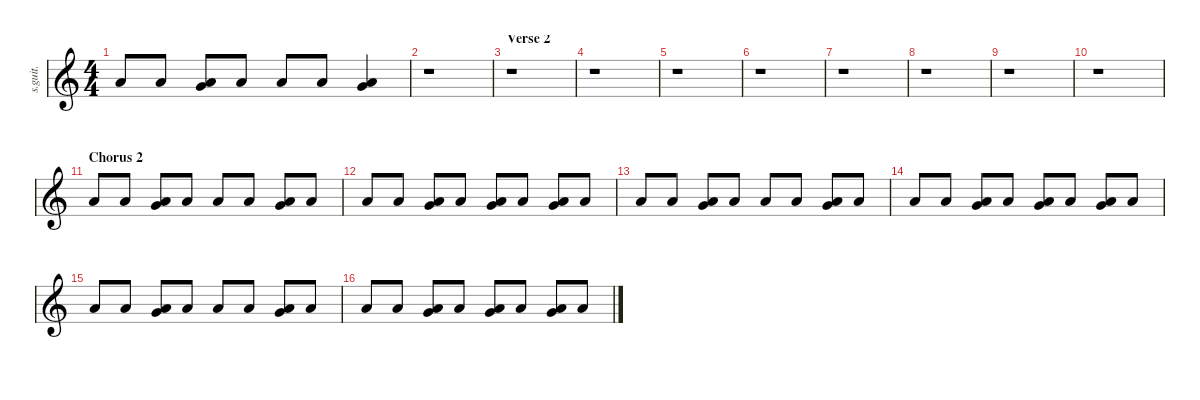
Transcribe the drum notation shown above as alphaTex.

\defaultSystemsLayout 4
\hideDynamics
\bracketExtendMode nobrackets
\track ("Clown" "s.guit.") {instrument percussion}
\staff {score}
\articulation defaults
\ts (4 4)
\tempo (210 hide)
\clef g2
\ks c "Low Floor Tom (hit)".8{lyrics (0 "") lyrics (1 "") lyrics (2 "") lyrics (3 "") lyrics (4 "") dy f} "Low Floor Tom (hit)".8{lyrics (0 "") lyrics (1 "") lyrics (2 "") lyrics (3 "") lyrics (4 "")}
("Very Low Tom (hit)" "Low Floor Tom (hit)").8{lyrics (0 "") lyrics (1 "") lyrics (2 "") lyrics (3 "") lyrics (4 "")} "Low Floor Tom (hit)".8{lyrics (0 "") lyrics (1 "") lyrics (2 "") lyrics (3 "") lyrics (4 "")} "Low Floor Tom (hit)".8{lyrics (0 "") lyrics (1 "") lyrics (2 "") lyrics (3 "") lyrics (4 "")} "Low Floor Tom (hit)".8{lyrics (0 "") lyrics (1 "") lyrics (2 "") lyrics (3 "") lyrics (4 "")} ("Very Low Tom (hit)" "Low Floor Tom (hit)").4{lyrics (0 "") lyrics (1 "") lyrics (2 "") lyrics (3 "") lyrics (4 "")} |
r.1 |
\section ("" "Verse 2")
r.1 |
r.1 |
r.1 |
r.1 |
r.1 |
r.1 |
r.1 |
r.1 |
\section ("" "Chorus 2")
"Low Floor Tom (hit)".8{lyrics (0 "") lyrics (1 "") lyrics (2 "") lyrics (3 "") lyrics (4 "")} "Low Floor Tom (hit)".8{lyrics (0 "") lyrics (1 "") lyrics (2 "") lyrics (3 "") lyrics (4 "")} ("Very Low Tom (hit)" "Low Floor Tom (hit)").8{lyrics (0 "") lyrics (1 "") lyrics (2 "") lyrics (3 "") lyrics (4 "")} "Low Floor Tom (hit)".8{lyrics (0 "") lyrics (1 "") lyrics (2 "") lyrics (3 "") lyrics (4 "")} "Low Floor Tom (hit)".8{lyrics (0 "") lyrics (1 "") lyrics (2 "") lyrics (3 "") lyrics (4 "")} "Low Floor Tom (hit)".8{lyrics (0 "") lyrics (1 "") lyrics (2 "") lyrics (3 "") lyrics (4 "")} ("Very Low Tom (hit)" "Low Floor Tom (hit)").8{lyrics (0 "") lyrics (1 "") lyrics (2 "") lyrics (3 "") lyrics (4 "")} "Low Floor Tom (hit)".8{lyrics (0 "") lyrics (1 "") lyrics (2 "") lyrics (3 "") lyrics (4 "")} |
"Low Floor Tom (hit)".8{lyrics (0 "") lyrics (1 "") lyrics (2 "") lyrics (3 "") lyrics (4 "")} "Low Floor Tom (hit)".8{lyrics (0 "") lyrics (1 "") lyrics (2 "") lyrics (3 "") lyrics (4 "")} ("Very Low Tom (hit)" "Low Floor Tom (hit)").8{lyrics (0 "") lyrics (1 "") lyrics (2 "") lyrics (3 "") lyrics (4 "")} "Low Floor Tom (hit)".8{lyrics (0 "") lyrics (1 "") lyrics (2 "") lyrics (3 "") lyrics (4 "")} ("Very Low Tom (hit)" "Low Floor Tom (hit)").8{lyrics (0 "") lyrics (1 "") lyrics (2 "") lyrics (3 "") lyrics (4 "")} "Low Floor Tom (hit)".8{lyrics (0 "") lyrics (1 "") lyrics (2 "") lyrics (3 "") lyrics (4 "")} ("Very Low Tom (hit)" "Low Floor Tom (hit)").8{lyrics (0 "") lyrics (1 "") lyrics (2 "") lyrics (3 "") lyrics (4 "")} "Low Floor Tom (hit)".8{lyrics (0 "") lyrics (1 "") lyrics (2 "") lyrics (3 "") lyrics (4 "")} |
"Low Floor Tom (hit)".8{lyrics (0 "") lyrics (1 "") lyrics (2 "") lyrics (3 "") lyrics (4 "")} "Low Floor Tom (hit)".8{lyrics (0 "") lyrics (1 "") lyrics (2 "") lyrics (3 "") lyrics (4 "")} ("Very Low Tom (hit)" "Low Floor Tom (hit)").8{lyrics (0 "") lyrics (1 "") lyrics (2 "") lyrics (3 "") lyrics (4 "")} "Low Floor Tom (hit)".8{lyrics (0 "") lyrics (1 "") lyrics (2 "") lyrics (3 "") lyrics (4 "")} "Low Floor Tom (hit)".8{lyrics (0 "") lyrics (1 "") lyrics (2 "") lyrics (3 "") lyrics (4 "")} "Low Floor Tom (hit)".8{lyrics (0 "") lyrics (1 "") lyrics (2 "") lyrics (3 "") lyrics (4 "")} ("Very Low Tom (hit)" "Low Floor Tom (hit)").8{lyrics (0 "") lyrics (1 "") lyrics (2 "") lyrics (3 "") lyrics (4 "")} "Low Floor Tom (hit)".8{lyrics (0 "") lyrics (1 "") lyrics (2 "") lyrics (3 "") lyrics (4 "")} |
"Low Floor Tom (hit)".8{lyrics (0 "") lyrics (1 "") lyrics (2 "") lyrics (3 "") lyrics (4 "")} "Low Floor Tom (hit)".8{lyrics (0 "") lyrics (1 "") lyrics (2 "") lyrics (3 "") lyrics (4 "")} ("Very Low Tom (hit)" "Low Floor Tom (hit)").8{lyrics (0 "") lyrics (1 "") lyrics (2 "") lyrics (3 "") lyrics (4 "")} "Low Floor Tom (hit)".8{lyrics (0 "") lyrics (1 "") lyrics (2 "") lyrics (3 "") lyrics (4 "")} ("Very Low Tom (hit)" "Low Floor Tom (hit)").8{lyrics (0 "") lyrics (1 "") lyrics (2 "") lyrics (3 "") lyrics (4 "")} "Low Floor Tom (hit)".8{lyrics (0 "") lyrics (1 "") lyrics (2 "") lyrics (3 "") lyrics (4 "")} ("Very Low Tom (hit)" "Low Floor Tom (hit)").8{lyrics (0 "") lyrics (1 "") lyrics (2 "") lyrics (3 "") lyrics (4 "")} "Low Floor Tom (hit)".8{lyrics (0 "") lyrics (1 "") lyrics (2 "") lyrics (3 "") lyrics (4 "")} |
"Low Floor Tom (hit)".8{lyrics (0 "") lyrics (1 "") lyrics (2 "") lyrics (3 "") lyrics (4 "")} "Low Floor Tom (hit)".8{lyrics (0 "") lyrics (1 "") lyrics (2 "") lyrics (3 "") lyrics (4 "")} ("Very Low Tom (hit)" "Low Floor Tom (hit)").8{lyrics (0 "") lyrics (1 "") lyrics (2 "") lyrics (3 "") lyrics (4 "")} "Low Floor Tom (hit)".8{lyrics (0 "") lyrics (1 "") lyrics (2 "") lyrics (3 "") lyrics (4 "")} "Low Floor Tom (hit)".8{lyrics (0 "") lyrics (1 "") lyrics (2 "") lyrics (3 "") lyrics (4 "")} "Low Floor Tom (hit)".8{lyrics (0 "") lyrics (1 "") lyrics (2 "") lyrics (3 "") lyrics (4 "")} ("Very Low Tom (hit)" "Low Floor Tom (hit)").8{lyrics (0 "") lyrics (1 "") lyrics (2 "") lyrics (3 "") lyrics (4 "")} "Low Floor Tom (hit)".8{lyrics (0 "") lyrics (1 "") lyrics (2 "") lyrics (3 "") lyrics (4 "")} |
"Low Floor Tom (hit)".8{lyrics (0 "") lyrics (1 "") lyrics (2 "") lyrics (3 "") lyrics (4 "")} "Low Floor Tom (hit)".8{lyrics (0 "") lyrics (1 "") lyrics (2 "") lyrics (3 "") lyrics (4 "")} ("Very Low Tom (hit)" "Low Floor Tom (hit)").8{lyrics (0 "") lyrics (1 "") lyrics (2 "") lyrics (3 "") lyrics (4 "")} "Low Floor Tom (hit)".8{lyrics (0 "") lyrics (1 "") lyrics (2 "") lyrics (3 "") lyrics (4 "")} ("Very Low Tom (hit)" "Low Floor Tom (hit)").8{lyrics (0 "") lyrics (1 "") lyrics (2 "") lyrics (3 "") lyrics (4 "")} "Low Floor Tom (hit)".8{lyrics (0 "") lyrics (1 "") lyrics (2 "") lyrics (3 "") lyrics (4 "")} ("Very Low Tom (hit)" "Low Floor Tom (hit)").8{lyrics (0 "") lyrics (1 "") lyrics (2 "") lyrics (3 "") lyrics (4 "")} "Low Floor Tom (hit)".8{lyrics (0 "") lyrics (1 "") lyrics (2 "") lyrics (3 "") lyrics (4 "")}
